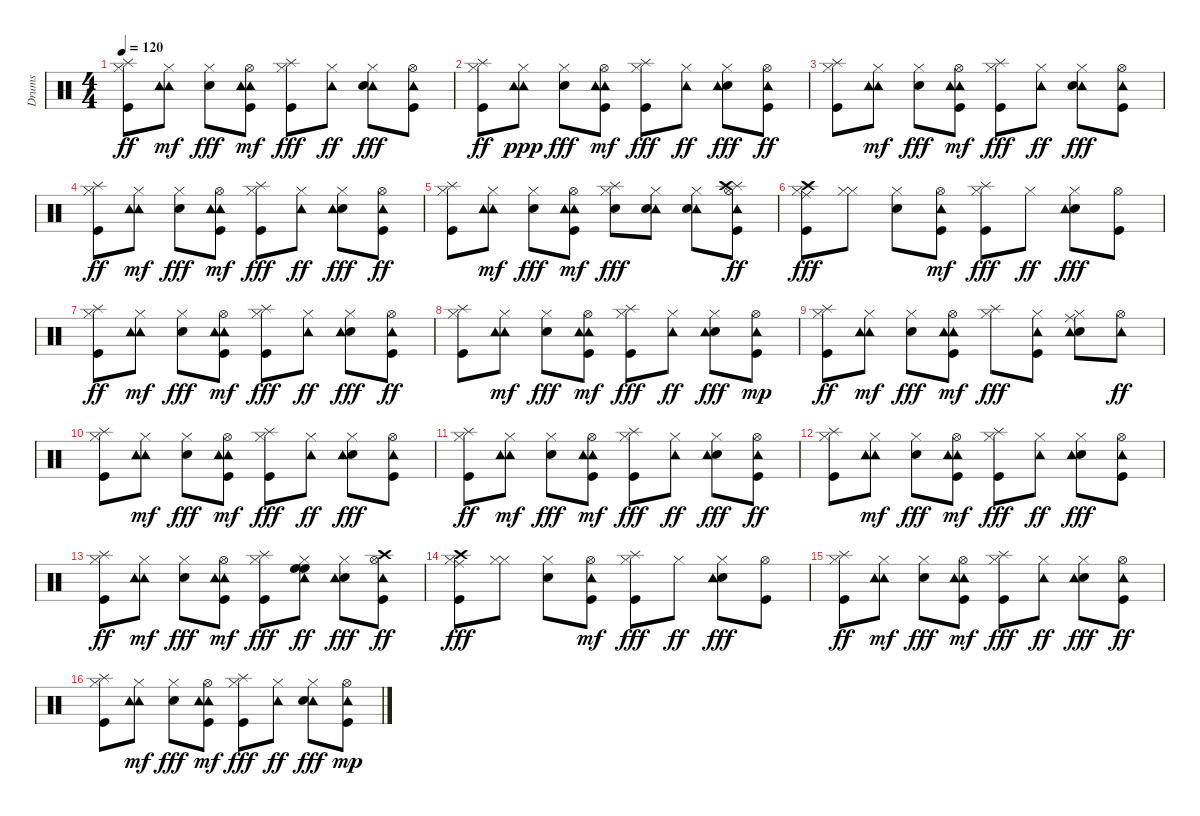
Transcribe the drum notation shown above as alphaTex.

\track ("Drums " "Drums ") {instrument percussion}
\staff {score}
\articulation defaults
\ts (4 4)
\tempo 120
\clef neutral
\ks c
("Hi-Hat (closed)" "Kick (hit)" "Splash (hit)").8{dy ff} ("Tambourine (hit)" "Hi-Hat (closed)" "Tambourine (hit)").8{dy mf} ("Hi-Hat (closed)" "Electric Snare (hit)").8{dy fff} ("Tambourine (hit)" "Kick (hit)" "Tambourine (hit)" "Hi-Hat (open)").8{dy mf} ("Kick (hit)" "Splash (hit)" "Hi-Hat (closed)").8{dy fff} ("Tambourine (hit)" "Hi-Hat (closed)").8{dy ff} ("Tambourine (hit)" "Hi-Hat (closed)" "Electric Snare (hit)").8{dy fff} ("Tambourine (hit)" "Hi-Hat (open)" "Kick (hit)").8 |
("Hi-Hat (closed)" "Kick (hit)" "Splash (hit)").8{dy ff} ("Hi-Hat (closed)" "Tambourine (hit)" "Tambourine (hit)").8{dy ppp} ("Hi-Hat (closed)" "Electric Snare (hit)").8{dy fff} ("Tambourine (hit)" "Kick (hit)" "Tambourine (hit)" "Hi-Hat (open)").8{dy mf} ("Kick (hit)" "Splash (hit)" "Hi-Hat (closed)").8{dy fff} ("Tambourine (hit)" "Hi-Hat (closed)").8{dy ff} ("Electric Snare (hit)" "Tambourine (hit)" "Hi-Hat (closed)").8{dy fff} ("Kick (hit)" "Tambourine (hit)" "Hi-Hat (open)").8{dy ff} |
("Hi-Hat (closed)" "Kick (hit)" "Splash (hit)").8 ("Tambourine (hit)" "Hi-Hat (closed)" "Tambourine (hit)").8{dy mf} ("Hi-Hat (closed)" "Electric Snare (hit)").8{dy fff} ("Tambourine (hit)" "Kick (hit)" "Tambourine (hit)" "Hi-Hat (open)").8{dy mf} ("Kick (hit)" "Splash (hit)" "Hi-Hat (closed)").8{dy fff} ("Tambourine (hit)" "Hi-Hat (closed)").8{dy ff} ("Tambourine (hit)" "Hi-Hat (closed)" "Electric Snare (hit)").8{dy fff} ("Tambourine (hit)" "Hi-Hat (open)" "Kick (hit)").8 |
("Hi-Hat (closed)" "Kick (hit)" "Splash (hit)").8{dy ff} ("Tambourine (hit)" "Hi-Hat (closed)" "Tambourine (hit)").8{dy mf} ("Hi-Hat (closed)" "Electric Snare (hit)").8{dy fff} ("Tambourine (hit)" "Kick (hit)" "Tambourine (hit)" "Hi-Hat (open)").8{dy mf} ("Kick (hit)" "Splash (hit)" "Hi-Hat (closed)").8{dy fff} ("Tambourine (hit)" "Hi-Hat (closed)").8{dy ff} ("Electric Snare (hit)" "Tambourine (hit)" "Hi-Hat (closed)").8{dy fff} ("Kick (hit)" "Tambourine (hit)" "Hi-Hat (open)").8{dy ff} |
("Hi-Hat (closed)" "Kick (hit)" "Splash (hit)").8 ("Tambourine (hit)" "Hi-Hat (closed)" "Tambourine (hit)").8{dy mf} ("Hi-Hat (closed)" "Electric Snare (hit)").8{dy fff} ("Tambourine (hit)" "Kick (hit)" "Tambourine (hit)" "Hi-Hat (open)").8{dy mf} ("Hi-Hat (closed)" "Splash (hit)" "Electric Snare (hit)").8{dy fff} ("Hi-Hat (closed)" "Tambourine (hit)" "Electric Snare (hit)").8 ("Tambourine (hit)" "Hi-Hat (closed)" "Electric Snare (hit)").8 ("Tambourine (hit)" "Hi-Hat (open)" "Kick (hit)" "Splash (hit)" "Crash high (hit)").8{dy ff} |
("Crash high (hit)" "Hi-Hat (closed)" "Kick (hit)" "Ride (middle)").8{dy fff} ("Hi-Hat (closed)" "Hi-Hat (closed)").8 ("Hi-Hat (closed)" "Electric Snare (hit)").8 ("Kick (hit)" "Tambourine (hit)" "Hi-Hat (open)").8{dy mf} ("Splash (hit)" "Hi-Hat (closed)" "Kick (hit)").8{dy fff} "Hi-Hat (closed)".8{dy ff} ("Electric Snare (hit)" "Tambourine (hit)" "Hi-Hat (closed)").8{dy fff} ("Hi-Hat (open)" "Kick (hit)").8 |
("Hi-Hat (closed)" "Kick (hit)" "Splash (hit)").8{dy ff} ("Tambourine (hit)" "Hi-Hat (closed)" "Tambourine (hit)").8{dy mf} ("Electric Snare (hit)" "Hi-Hat (closed)").8{dy fff} ("Tambourine (hit)" "Kick (hit)" "Tambourine (hit)" "Hi-Hat (open)").8{dy mf} ("Kick (hit)" "Splash (hit)" "Hi-Hat (closed)").8{dy fff} ("Tambourine (hit)" "Hi-Hat (closed)").8{dy ff} ("Electric Snare (hit)" "Tambourine (hit)" "Hi-Hat (closed)").8{dy fff} ("Kick (hit)" "Tambourine (hit)" "Hi-Hat (open)").8{dy ff} |
("Hi-Hat (closed)" "Kick (hit)" "Splash (hit)").8 ("Tambourine (hit)" "Hi-Hat (closed)" "Tambourine (hit)").8{dy mf} ("Hi-Hat (closed)" "Electric Snare (hit)").8{dy fff} ("Tambourine (hit)" "Kick (hit)" "Tambourine (hit)" "Hi-Hat (open)").8{dy mf} ("Kick (hit)" "Splash (hit)" "Hi-Hat (closed)").8{dy fff} ("Tambourine (hit)" "Hi-Hat (closed)").8{dy ff} ("Electric Snare (hit)" "Tambourine (hit)" "Hi-Hat (closed)").8{dy fff} ("Kick (hit)" "Hi-Hat (open)" "Tambourine (hit)").8{dy mp} |
("Hi-Hat (closed)" "Kick (hit)" "Splash (hit)").8{dy ff} ("Tambourine (hit)" "Hi-Hat (closed)" "Tambourine (hit)").8{dy mf} ("Hi-Hat (closed)" "Electric Snare (hit)").8{dy fff} ("Tambourine (hit)" "Kick (hit)" "Tambourine (hit)" "Hi-Hat (open)").8{dy mf} ("Splash (hit)" "Hi-Hat (closed)").8{dy fff} ("Tambourine (hit)" "Hi-Hat (closed)" "Kick (hit)").8 ("Hi-Hat (closed)" "Electric Snare (hit)" "Tambourine (hit)" "Ride (middle)").8 ("Tambourine (hit)" "Hi-Hat (open)").8{dy ff} |
("Hi-Hat (closed)" "Kick (hit)" "Splash (hit)").8 ("Tambourine (hit)" "Hi-Hat (closed)" "Tambourine (hit)").8{dy mf} ("Hi-Hat (closed)" "Electric Snare (hit)").8{dy fff} ("Tambourine (hit)" "Kick (hit)" "Tambourine (hit)" "Hi-Hat (open)").8{dy mf} ("Splash (hit)" "Hi-Hat (closed)" "Kick (hit)").8{dy fff} ("Tambourine (hit)" "Hi-Hat (closed)").8{dy ff} ("Electric Snare (hit)" "Tambourine (hit)" "Hi-Hat (closed)").8{dy fff} ("Tambourine (hit)" "Hi-Hat (open)" "Kick (hit)").8 |
("Hi-Hat (closed)" "Kick (hit)" "Splash (hit)").8{dy ff} ("Tambourine (hit)" "Hi-Hat (closed)" "Tambourine (hit)").8{dy mf} ("Hi-Hat (closed)" "Electric Snare (hit)").8{dy fff} ("Tambourine (hit)" "Kick (hit)" "Tambourine (hit)" "Hi-Hat (open)").8{dy mf} ("Kick (hit)" "Splash (hit)" "Hi-Hat (closed)").8{dy fff} ("Tambourine (hit)" "Hi-Hat (closed)").8{dy ff} ("Electric Snare (hit)" "Hi-Hat (closed)" "Tambourine (hit)").8{dy fff} ("Kick (hit)" "Tambourine (hit)" "Hi-Hat (open)").8{dy ff} |
("Hi-Hat (closed)" "Kick (hit)" "Splash (hit)").8 ("Tambourine (hit)" "Hi-Hat (closed)" "Tambourine (hit)").8{dy mf} ("Hi-Hat (closed)" "Electric Snare (hit)").8{dy fff} ("Tambourine (hit)" "Kick (hit)" "Tambourine (hit)" "Hi-Hat (open)").8{dy mf} ("Kick (hit)" "Splash (hit)" "Hi-Hat (closed)").8{dy fff} ("Tambourine (hit)" "Hi-Hat (closed)").8{dy ff} ("Electric Snare (hit)" "Tambourine (hit)" "Hi-Hat (closed)").8{dy fff} ("Tambourine (hit)" "Hi-Hat (open)" "Kick (hit)").8 |
("Hi-Hat (closed)" "Kick (hit)" "Splash (hit)").8{dy ff} ("Tambourine (hit)" "Hi-Hat (closed)" "Tambourine (hit)").8{dy mf} ("Hi-Hat (closed)" "Electric Snare (hit)").8{dy fff} ("Tambourine (hit)" "Kick (hit)" "Tambourine (hit)" "Hi-Hat (open)").8{dy mf} ("Kick (hit)" "Splash (hit)" "Hi-Hat (closed)").8{dy fff} ("Tambourine (hit)" "High Floor Tom (hit)" "Hi-Hat (closed)" "High Floor Tom (hit)").8{dy ff} ("Electric Snare (hit)" "Tambourine (hit)" "Hi-Hat (closed)").8{dy fff} ("Hi-Hat (open)" "Kick (hit)" "Tambourine (hit)" "Crash high (hit)").8{dy ff} |
("Crash high (hit)" "Hi-Hat (closed)" "Kick (hit)" "Ride (middle)").8{dy fff} ("Hi-Hat (closed)" "Hi-Hat (closed)").8 ("Hi-Hat (closed)" "Electric Snare (hit)").8 ("Kick (hit)" "Tambourine (hit)" "Hi-Hat (open)").8{dy mf} ("Kick (hit)" "Splash (hit)" "Hi-Hat (closed)").8{dy fff} "Hi-Hat (closed)".8{dy ff} ("Electric Snare (hit)" "Tambourine (hit)" "Hi-Hat (closed)").8{dy fff} ("Hi-Hat (open)" "Kick (hit)").8 |
("Hi-Hat (closed)" "Kick (hit)" "Splash (hit)").8{dy ff} ("Tambourine (hit)" "Hi-Hat (closed)" "Tambourine (hit)").8{dy mf} ("Hi-Hat (closed)" "Electric Snare (hit)").8{dy fff} ("Tambourine (hit)" "Kick (hit)" "Tambourine (hit)" "Hi-Hat (open)").8{dy mf} ("Kick (hit)" "Splash (hit)" "Hi-Hat (closed)").8{dy fff} ("Tambourine (hit)" "Hi-Hat (closed)").8{dy ff} ("Electric Snare (hit)" "Tambourine (hit)" "Hi-Hat (closed)").8{dy fff} ("Kick (hit)" "Tambourine (hit)" "Hi-Hat (open)").8{dy ff} |
("Hi-Hat (closed)" "Kick (hit)" "Splash (hit)").8 ("Tambourine (hit)" "Hi-Hat (closed)" "Tambourine (hit)").8{dy mf} ("Electric Snare (hit)" "Hi-Hat (closed)").8{dy fff} ("Kick (hit)" "Tambourine (hit)" "Tambourine (hit)" "Hi-Hat (open)").8{dy mf} ("Kick (hit)" "Splash (hit)" "Hi-Hat (closed)").8{dy fff} ("Tambourine (hit)" "Hi-Hat (closed)").8{dy ff} ("Tambourine (hit)" "Hi-Hat (closed)" "Electric Snare (hit)").8{dy fff} ("Kick (hit)" "Hi-Hat (open)" "Tambourine (hit)").8{dy mp}
